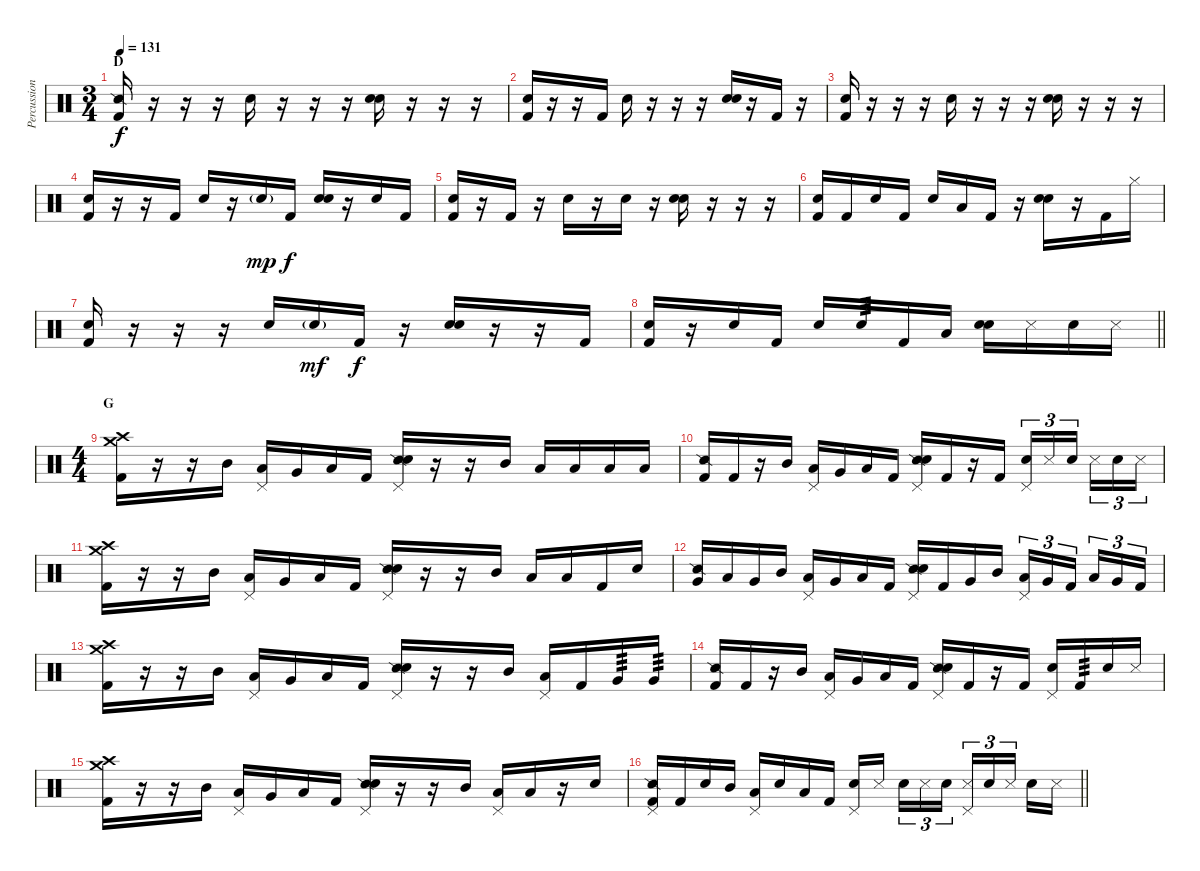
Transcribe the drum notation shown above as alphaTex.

\track ("Percussion" "Percussion") {instrument percussion}
\staff {score}
\articulation defaults
\ts (3 4)
\section ("" "D")
\tempo 131
\clef neutral
\ks c
("Snare (side stick) 2" "Kick (hit) 2").16{dy f} r.16 r.16 r.16 "Snare (hit)".16 r.16 r.16 r.16 ("Snare (hit)" "Snare (hit) 2").16 r.16 r.16 r.16 |
("Snare (hit)" "Kick (hit) 2").16 r.16 r.16 "Kick (hit) 2".16 "Snare (hit)".16 r.16 r.16 r.16 ("Snare (hit)" "Snare (hit) 2").16 r.16 "Kick (hit) 2".16 r.16 |
("Snare (hit)" "Kick (hit) 2").16 r.16 r.16 r.16 "Snare (hit)".16 r.16 r.16 r.16 ("Snare (hit)" "Snare (hit) 2").16 r.16 r.16 r.16 |
("Snare (hit)" "Kick (hit) 2").16 r.16 r.16 "Kick (hit) 2".16 "Snare (hit)".16 r.16 "Snare (hit)"{g}.16{dy mp} "Kick (hit) 2".16{dy f} ("Snare (hit)" "Snare (hit) 2").16 r.16 "Snare (hit)".16 "Kick (hit) 2".16 |
("Snare (hit)" "Kick (hit) 2").16 r.16 "Kick (hit) 2".16 r.16 "Snare (hit)".16 r.16 "Snare (hit) 2".16 r.16 ("Snare (hit)" "Snare (hit) 2").16 r.16 r.16 r.16 |
("Snare (hit)" "Kick (hit) 2").16 "Kick (hit) 2".16 "Snare (hit) 2".16 "Kick (hit) 2".16 "Snare (hit)".16 "Low Floor Tom (hit)".16 "Kick (hit) 2".16 r.16 ("Snare (hit)" "Snare (hit) 2").16 r.16 "Kick (hit) 2".16 "Hi-Hat (closed)".16 |
("Snare (hit)" "Kick (hit) 2").16 r.16 r.16 r.16 "Snare (hit)".16 "Snare (hit) 2"{g}.16{dy mf} "Kick (hit) 2".16{dy f} r.16 ("Snare (hit)" "Snare (hit) 2").16 r.16 r.16 "Kick (hit) 2".16 |
\barLineRight lightlight
("Snare (hit)" "Kick (hit) 2").16 r.16 "Snare (hit) 2".16 "Kick (hit) 2".16 "Snare (hit)".16 "Snare (hit) 2".16{tp 3} "Kick (hit) 2".16 "Low Floor Tom (hit)".16 ("Snare (hit)" "Snare (hit) 2").16 "Metronome (hit)".16 "Snare (hit) 2".16 "Metronome (hit)".16 |
\ts (4 4)
\section ("" "G")
("Crash medium (hit)" "Crash high (hit)" "Kick (hit) 2").16 r.16 r.16 "Mid Tom (hit)".16 ("Pedal Hi-Hat (hit)" "Low Tom (hit)").16 "Very Low Tom (hit)".16 "Low Floor Tom (hit)".16 "Kick (hit) 2".16 ("Snare (side stick) 2" "Pedal Hi-Hat (hit)" "Snare (hit) 2").16 r.16 r.16 "Mid Tom (hit)".16 "Low Tom (hit)".16 "Low Floor Tom (hit)".16 "Low Floor Tom (hit)".16 "Low Floor Tom (hit)".16 |
("Snare (side stick) 2" "Kick (hit) 2").16 "Kick (hit) 2".16 r.16 "Mid Tom (hit)".16 ("Pedal Hi-Hat (hit)" "Low Tom (hit)").16 "Very Low Tom (hit)".16 "Low Floor Tom (hit)".16 "Kick (hit) 2".16 ("Snare (side stick) 2" "Pedal Hi-Hat (hit)" "Snare (hit) 2").16 "Kick (hit) 2".16 r.16 "Kick (hit) 2".16 ("Pedal Hi-Hat (hit)" "Snare (hit) 2").16{tu (3 2)} "Metronome (hit)".16{tu (3 2)} "Snare (hit) 2".16{tu (3 2) beam splitsecondary} "Metronome (hit)".16{tu (3 2)} "Snare (hit) 2".16{tu (3 2)} "Metronome (hit)".16{tu (3 2)} |
("Crash medium (hit)" "Crash high (hit)" "Kick (hit) 2").16 r.16 r.16 "Mid Tom (hit)".16 ("Pedal Hi-Hat (hit)" "Low Tom (hit)").16 "Very Low Tom (hit)".16 "Low Floor Tom (hit)".16 "Kick (hit) 2".16 ("Snare (side stick) 2" "Pedal Hi-Hat (hit)" "Snare (hit) 2").16 r.16 r.16 "Mid Tom (hit)".16 "Low Tom (hit)".16 "Low Floor Tom (hit)".16 "Kick (hit) 2".16 "Snare (hit) 2".16 |
("Snare (side stick) 2" "Very Low Tom (hit)").16 "Low Tom (hit)".16 "Very Low Tom (hit)".16 "Mid Tom (hit)".16 ("Pedal Hi-Hat (hit)" "Low Tom (hit)").16 "Very Low Tom (hit)".16 "Low Floor Tom (hit)".16 "Kick (hit) 2".16 ("Snare (side stick) 2" "Pedal Hi-Hat (hit)" "Snare (hit) 2").16 "Kick (hit) 2".16 "Very Low Tom (hit)".16 "Mid Tom (hit)".16 ("Pedal Hi-Hat (hit)" "Low Tom (hit)").16{tu (3 2)} "Very Low Tom (hit)".16{tu (3 2)} "Kick (hit) 2".16{tu (3 2) beam splitsecondary} "Low Tom (hit)".16{tu (3 2)} "Very Low Tom (hit)".16{tu (3 2)} "Kick (hit) 2".16{tu (3 2)} |
("Crash medium (hit)" "Crash high (hit)" "Kick (hit) 2").16 r.16 r.16 "Mid Tom (hit)".16 ("Pedal Hi-Hat (hit)" "Low Tom (hit)").16 "Very Low Tom (hit)".16 "Low Floor Tom (hit)".16 "Kick (hit) 2".16 ("Snare (side stick) 2" "Pedal Hi-Hat (hit)" "Snare (hit) 2").16 r.16 r.16 "Mid Tom (hit)".16 ("Pedal Hi-Hat (hit)" "Low Tom (hit)").16 "Kick (hit) 2".16 "Very Low Tom (hit)".16{tp 3} "Very Low Tom (hit)".16{tp 3} |
("Snare (side stick) 2" "Kick (hit) 2").16 "Kick (hit) 2".16 r.16 "Mid Tom (hit)".16 ("Pedal Hi-Hat (hit)" "Low Tom (hit)").16 "Very Low Tom (hit)".16 "Low Floor Tom (hit)".16 "Kick (hit) 2".16 ("Snare (side stick) 2" "Pedal Hi-Hat (hit)" "Snare (hit) 2").16 "Kick (hit) 2".16 r.16 "Kick (hit) 2".16 ("Pedal Hi-Hat (hit)" "Snare (hit) 2").16 "Kick (hit) 2".16{tp 3} "Snare (hit) 2".16 "Metronome (hit)".16 |
("Crash medium (hit)" "Crash high (hit)" "Kick (hit) 2").16 r.16 r.16 "Mid Tom (hit)".16 ("Pedal Hi-Hat (hit)" "Low Tom (hit)").16 "Very Low Tom (hit)".16 "Low Floor Tom (hit)".16 "Kick (hit) 2".16 ("Snare (side stick) 2" "Pedal Hi-Hat (hit)" "Snare (hit) 2").16 r.16 r.16 "Mid Tom (hit)".16 ("Pedal Hi-Hat (hit)" "Low Tom (hit)").16 "Low Floor Tom (hit)".16 r.16 "Snare (hit) 2".16 |
\barLineRight lightlight
("Snare (side stick) 2" "Pedal Hi-Hat (hit)" "Kick (hit) 2").16 "Kick (hit) 2".16 "Snare (hit) 2".16 "Mid Tom (hit)".16 ("Pedal Hi-Hat (hit)" "Low Tom (hit)").16 "Snare (hit) 2".16 "Low Floor Tom (hit)".16 "Kick (hit) 2".16 ("Pedal Hi-Hat (hit)" "Snare (hit) 2").16 "Metronome (hit)".16{beam splitsecondary} "Snare (hit) 2".16{tu (3 2)} "Metronome (hit)".16{tu (3 2)} "Snare (hit) 2".16{tu (3 2)} ("Pedal Hi-Hat (hit)" "Metronome (hit)").16{tu (3 2)} "Snare (hit) 2".16{tu (3 2)} "Metronome (hit)".16{tu (3 2) beam splitsecondary} "Snare (hit) 2".16 "Metronome (hit)".16
